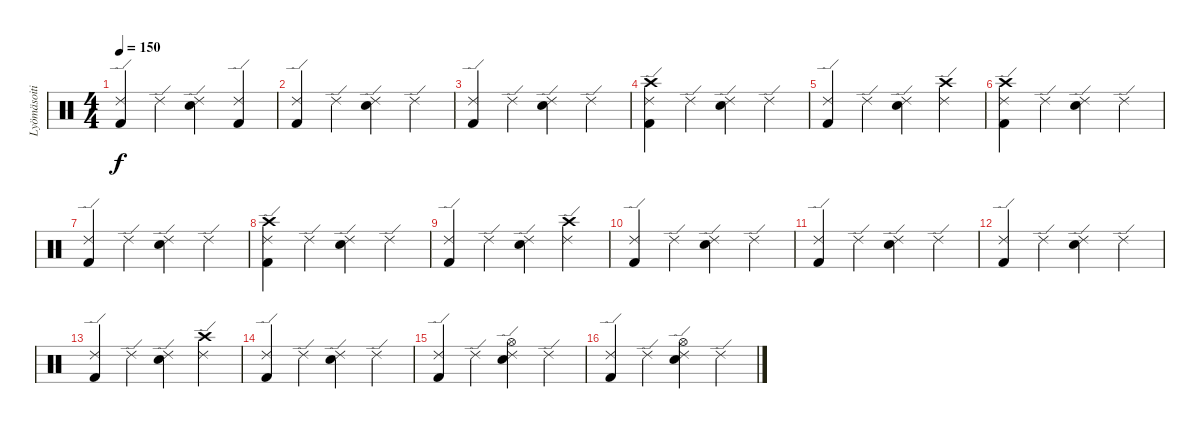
\track ("Lyömäsoitin" "Lyömäsoiti") {instrument percussion}
\staff {score}
\articulation defaults
\ts (4 4)
\tempo 150
\clef neutral
\ks c
("Ride (edge) 2" "Kick (hit) 2").4{dy f} "Ride (edge) 2".4 ("Ride (edge) 2" "Snare (hit) 2").4 ("Ride (edge) 2" "Kick (hit) 2").4 |
("Ride (edge) 2" "Kick (hit) 2").4 "Ride (edge) 2".4 ("Ride (edge) 2" "Snare (hit) 2").4 "Ride (edge) 2".4 |
("Ride (edge) 2" "Kick (hit) 2").4 "Ride (edge) 2".4 ("Ride (edge) 2" "Snare (hit) 2").4 "Ride (edge) 2".4 |
("Ride (edge) 2" "Kick (hit) 2" "Crash high (hit)").4 "Ride (edge) 2".4 ("Ride (edge) 2" "Snare (hit) 2").4 "Ride (edge) 2".4 |
("Ride (edge) 2" "Kick (hit) 2").4 "Ride (edge) 2".4 ("Ride (edge) 2" "Snare (hit) 2").4 ("Ride (edge) 2" "Crash high (hit)").4 |
("Ride (edge) 2" "Kick (hit) 2" "Crash high (hit)").4 "Ride (edge) 2".4 ("Ride (edge) 2" "Snare (hit) 2").4 "Ride (edge) 2".4 |
("Ride (edge) 2" "Kick (hit) 2").4 "Ride (edge) 2".4 ("Ride (edge) 2" "Snare (hit) 2").4 "Ride (edge) 2".4 |
("Ride (edge) 2" "Kick (hit) 2" "Crash high (hit)").4 "Ride (edge) 2".4 ("Ride (edge) 2" "Snare (hit) 2").4 "Ride (edge) 2".4 |
("Ride (edge) 2" "Kick (hit) 2").4 "Ride (edge) 2".4 ("Ride (edge) 2" "Snare (hit) 2").4 ("Ride (edge) 2" "Crash high (hit)").4 |
("Ride (edge) 2" "Kick (hit) 2").4 "Ride (edge) 2".4 ("Ride (edge) 2" "Snare (hit) 2").4 "Ride (edge) 2".4 |
("Ride (edge) 2" "Kick (hit) 2").4 "Ride (edge) 2".4 ("Ride (edge) 2" "Snare (hit) 2").4 "Ride (edge) 2".4 |
("Ride (edge) 2" "Kick (hit) 2").4 "Ride (edge) 2".4 ("Ride (edge) 2" "Snare (hit) 2").4 "Ride (edge) 2".4 |
("Ride (edge) 2" "Kick (hit) 2").4 "Ride (edge) 2".4 ("Ride (edge) 2" "Snare (hit) 2").4 ("Ride (edge) 2" "Crash high (hit)").4 |
("Ride (edge) 2" "Kick (hit) 2").4 "Ride (edge) 2".4 ("Ride (edge) 2" "Snare (hit) 2").4 "Ride (edge) 2".4 |
("Ride (edge) 2" "Kick (hit) 2").4 "Ride (edge) 2".4 ("Ride (edge) 2" "Snare (hit) 2" "Hi-Hat (open)").4 "Ride (edge) 2".4 |
("Ride (edge) 2" "Kick (hit) 2").4 "Ride (edge) 2".4 ("Ride (edge) 2" "Snare (hit) 2" "Hi-Hat (open)").4 "Ride (edge) 2".4
